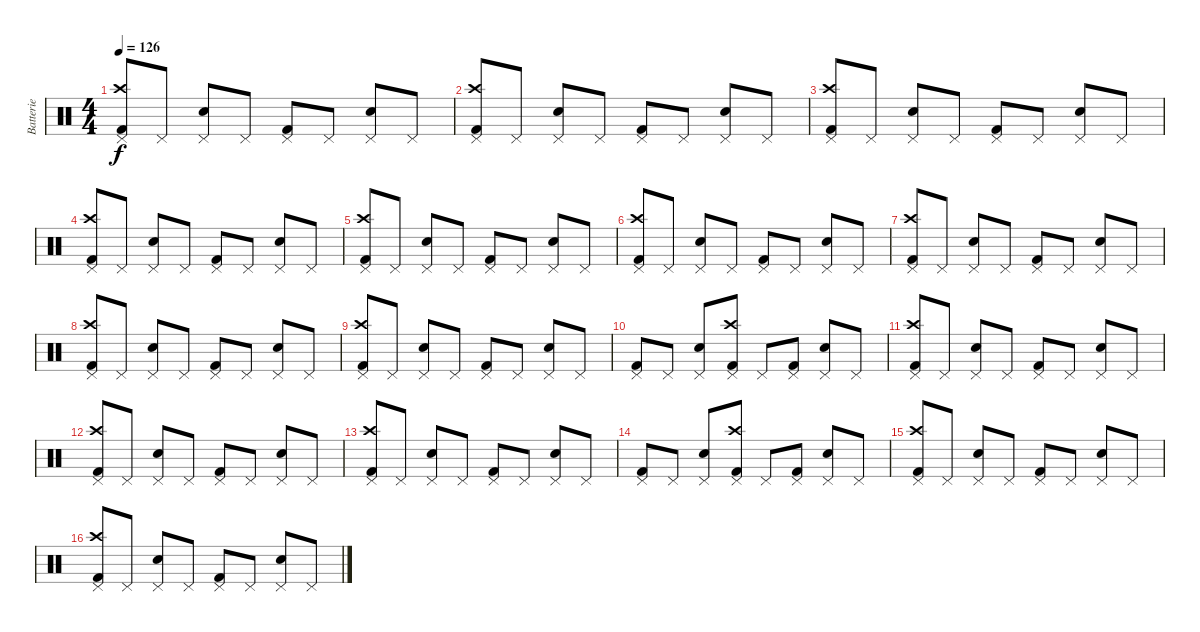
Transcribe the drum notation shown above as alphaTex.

\track ("Batterie" "Batterie") {instrument percussion}
\staff {score}
\articulation defaults
\ts (4 4)
\tempo 126
\clef neutral
\ks c
("Pedal Hi-Hat (hit)" "Crash high (hit)" "Kick (hit) 2").8{dy f} "Pedal Hi-Hat (hit)".8 ("Pedal Hi-Hat (hit)" "Snare (hit) 2").8 "Pedal Hi-Hat (hit)".8 ("Pedal Hi-Hat (hit)" "Kick (hit) 2").8 "Pedal Hi-Hat (hit)".8 ("Pedal Hi-Hat (hit)" "Snare (hit) 2").8 "Pedal Hi-Hat (hit)".8 |
("Pedal Hi-Hat (hit)" "Crash high (hit)" "Kick (hit) 2").8 "Pedal Hi-Hat (hit)".8 ("Pedal Hi-Hat (hit)" "Snare (hit) 2").8 "Pedal Hi-Hat (hit)".8 ("Pedal Hi-Hat (hit)" "Kick (hit) 2").8 "Pedal Hi-Hat (hit)".8 ("Pedal Hi-Hat (hit)" "Snare (hit) 2").8 "Pedal Hi-Hat (hit)".8 |
("Pedal Hi-Hat (hit)" "Crash high (hit)" "Kick (hit) 2").8 "Pedal Hi-Hat (hit)".8 ("Pedal Hi-Hat (hit)" "Snare (hit) 2").8 "Pedal Hi-Hat (hit)".8 ("Pedal Hi-Hat (hit)" "Kick (hit) 2").8 "Pedal Hi-Hat (hit)".8 ("Pedal Hi-Hat (hit)" "Snare (hit) 2").8 "Pedal Hi-Hat (hit)".8 |
("Pedal Hi-Hat (hit)" "Crash high (hit)" "Kick (hit) 2").8 "Pedal Hi-Hat (hit)".8 ("Pedal Hi-Hat (hit)" "Snare (hit) 2").8 "Pedal Hi-Hat (hit)".8 ("Pedal Hi-Hat (hit)" "Kick (hit) 2").8 "Pedal Hi-Hat (hit)".8 ("Pedal Hi-Hat (hit)" "Snare (hit) 2").8 "Pedal Hi-Hat (hit)".8 |
("Pedal Hi-Hat (hit)" "Crash high (hit)" "Kick (hit) 2").8 "Pedal Hi-Hat (hit)".8 ("Pedal Hi-Hat (hit)" "Snare (hit) 2").8 "Pedal Hi-Hat (hit)".8 ("Pedal Hi-Hat (hit)" "Kick (hit) 2").8 "Pedal Hi-Hat (hit)".8 ("Pedal Hi-Hat (hit)" "Snare (hit) 2").8 "Pedal Hi-Hat (hit)".8 |
("Pedal Hi-Hat (hit)" "Crash high (hit)" "Kick (hit) 2").8 "Pedal Hi-Hat (hit)".8 ("Pedal Hi-Hat (hit)" "Snare (hit) 2").8 "Pedal Hi-Hat (hit)".8 ("Pedal Hi-Hat (hit)" "Kick (hit) 2").8 "Pedal Hi-Hat (hit)".8 ("Pedal Hi-Hat (hit)" "Snare (hit) 2").8 "Pedal Hi-Hat (hit)".8 |
("Pedal Hi-Hat (hit)" "Crash high (hit)" "Kick (hit) 2").8 "Pedal Hi-Hat (hit)".8 ("Pedal Hi-Hat (hit)" "Snare (hit) 2").8 "Pedal Hi-Hat (hit)".8 ("Pedal Hi-Hat (hit)" "Kick (hit) 2").8 "Pedal Hi-Hat (hit)".8 ("Pedal Hi-Hat (hit)" "Snare (hit) 2").8 "Pedal Hi-Hat (hit)".8 |
("Pedal Hi-Hat (hit)" "Crash high (hit)" "Kick (hit) 2").8 "Pedal Hi-Hat (hit)".8 ("Pedal Hi-Hat (hit)" "Snare (hit) 2").8 "Pedal Hi-Hat (hit)".8 ("Pedal Hi-Hat (hit)" "Kick (hit) 2").8 "Pedal Hi-Hat (hit)".8 ("Pedal Hi-Hat (hit)" "Snare (hit) 2").8 "Pedal Hi-Hat (hit)".8 |
("Pedal Hi-Hat (hit)" "Crash high (hit)" "Kick (hit) 2").8 "Pedal Hi-Hat (hit)".8 ("Pedal Hi-Hat (hit)" "Snare (hit) 2").8 "Pedal Hi-Hat (hit)".8 ("Pedal Hi-Hat (hit)" "Kick (hit) 2").8 "Pedal Hi-Hat (hit)".8 ("Pedal Hi-Hat (hit)" "Snare (hit) 2").8 "Pedal Hi-Hat (hit)".8 |
("Pedal Hi-Hat (hit)" "Kick (hit) 2").8 "Pedal Hi-Hat (hit)".8 ("Pedal Hi-Hat (hit)" "Snare (hit) 2").8 ("Pedal Hi-Hat (hit)" "Crash high (hit)" "Kick (hit) 2").8 "Pedal Hi-Hat (hit)".8 ("Pedal Hi-Hat (hit)" "Kick (hit) 2").8 ("Pedal Hi-Hat (hit)" "Snare (hit) 2").8 "Pedal Hi-Hat (hit)".8 |
("Pedal Hi-Hat (hit)" "Crash high (hit)" "Kick (hit) 2").8 "Pedal Hi-Hat (hit)".8 ("Pedal Hi-Hat (hit)" "Snare (hit) 2").8 "Pedal Hi-Hat (hit)".8 ("Pedal Hi-Hat (hit)" "Kick (hit) 2").8 "Pedal Hi-Hat (hit)".8 ("Pedal Hi-Hat (hit)" "Snare (hit) 2").8 "Pedal Hi-Hat (hit)".8 |
("Pedal Hi-Hat (hit)" "Crash high (hit)" "Kick (hit) 2").8 "Pedal Hi-Hat (hit)".8 ("Pedal Hi-Hat (hit)" "Snare (hit) 2").8 "Pedal Hi-Hat (hit)".8 ("Pedal Hi-Hat (hit)" "Kick (hit) 2").8 "Pedal Hi-Hat (hit)".8 ("Pedal Hi-Hat (hit)" "Snare (hit) 2").8 "Pedal Hi-Hat (hit)".8 |
("Pedal Hi-Hat (hit)" "Crash high (hit)" "Kick (hit) 2").8 "Pedal Hi-Hat (hit)".8 ("Pedal Hi-Hat (hit)" "Snare (hit) 2").8 "Pedal Hi-Hat (hit)".8 ("Pedal Hi-Hat (hit)" "Kick (hit) 2").8 "Pedal Hi-Hat (hit)".8 ("Pedal Hi-Hat (hit)" "Snare (hit) 2").8 "Pedal Hi-Hat (hit)".8 |
("Pedal Hi-Hat (hit)" "Kick (hit) 2").8 "Pedal Hi-Hat (hit)".8 ("Pedal Hi-Hat (hit)" "Snare (hit) 2").8 ("Pedal Hi-Hat (hit)" "Crash high (hit)" "Kick (hit) 2").8 "Pedal Hi-Hat (hit)".8 ("Pedal Hi-Hat (hit)" "Kick (hit) 2").8 ("Pedal Hi-Hat (hit)" "Snare (hit) 2").8 "Pedal Hi-Hat (hit)".8 |
("Pedal Hi-Hat (hit)" "Crash high (hit)" "Kick (hit) 2").8 "Pedal Hi-Hat (hit)".8 ("Pedal Hi-Hat (hit)" "Snare (hit) 2").8 "Pedal Hi-Hat (hit)".8 ("Pedal Hi-Hat (hit)" "Kick (hit) 2").8 "Pedal Hi-Hat (hit)".8 ("Pedal Hi-Hat (hit)" "Snare (hit) 2").8 "Pedal Hi-Hat (hit)".8 |
("Pedal Hi-Hat (hit)" "Crash high (hit)" "Kick (hit) 2").8 "Pedal Hi-Hat (hit)".8 ("Pedal Hi-Hat (hit)" "Snare (hit) 2").8 "Pedal Hi-Hat (hit)".8 ("Pedal Hi-Hat (hit)" "Kick (hit) 2").8 "Pedal Hi-Hat (hit)".8 ("Pedal Hi-Hat (hit)" "Snare (hit) 2").8 "Pedal Hi-Hat (hit)".8
